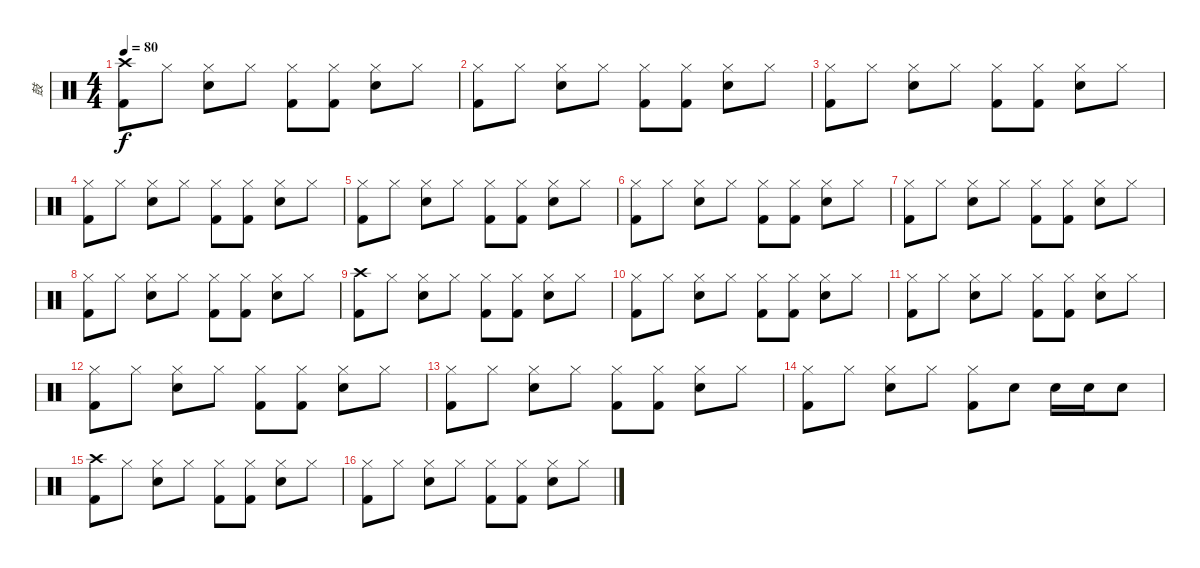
\track ("鼓" "鼓") {instrument percussion}
\staff {score}
\articulation defaults
\ts (4 4)
\tempo 80
\clef neutral
\ks c
("Crash high (hit)" "Kick (hit) 2").8{dy f} "Hi-Hat (closed)".8 ("Hi-Hat (closed)" "Electric Snare (hit)").8 "Hi-Hat (closed)".8 ("Hi-Hat (closed)" "Kick (hit) 2").8 ("Hi-Hat (closed)" "Kick (hit) 2").8 ("Hi-Hat (closed)" "Electric Snare (hit)").8 "Hi-Hat (closed)".8 |
("Hi-Hat (closed)" "Kick (hit) 2").8 "Hi-Hat (closed)".8 ("Hi-Hat (closed)" "Electric Snare (hit)").8 "Hi-Hat (closed)".8 ("Hi-Hat (closed)" "Kick (hit) 2").8 ("Hi-Hat (closed)" "Kick (hit) 2").8 ("Hi-Hat (closed)" "Electric Snare (hit)").8 "Hi-Hat (closed)".8 |
("Hi-Hat (closed)" "Kick (hit) 2").8 "Hi-Hat (closed)".8 ("Hi-Hat (closed)" "Electric Snare (hit)").8 "Hi-Hat (closed)".8 ("Hi-Hat (closed)" "Kick (hit) 2").8 ("Hi-Hat (closed)" "Kick (hit) 2").8 ("Hi-Hat (closed)" "Electric Snare (hit)").8 "Hi-Hat (closed)".8 |
("Hi-Hat (closed)" "Kick (hit) 2").8 "Hi-Hat (closed)".8 ("Hi-Hat (closed)" "Electric Snare (hit)").8 "Hi-Hat (closed)".8 ("Hi-Hat (closed)" "Kick (hit) 2").8 ("Hi-Hat (closed)" "Kick (hit) 2").8 ("Hi-Hat (closed)" "Electric Snare (hit)").8 "Hi-Hat (closed)".8 |
("Hi-Hat (closed)" "Kick (hit) 2").8 "Hi-Hat (closed)".8 ("Hi-Hat (closed)" "Electric Snare (hit)").8 "Hi-Hat (closed)".8 ("Hi-Hat (closed)" "Kick (hit) 2").8 ("Hi-Hat (closed)" "Kick (hit) 2").8 ("Hi-Hat (closed)" "Electric Snare (hit)").8 "Hi-Hat (closed)".8 |
("Hi-Hat (closed)" "Kick (hit) 2").8 "Hi-Hat (closed)".8 ("Hi-Hat (closed)" "Electric Snare (hit)").8 "Hi-Hat (closed)".8 ("Hi-Hat (closed)" "Kick (hit) 2").8 ("Hi-Hat (closed)" "Kick (hit) 2").8 ("Hi-Hat (closed)" "Electric Snare (hit)").8 "Hi-Hat (closed)".8 |
("Hi-Hat (closed)" "Kick (hit) 2").8 "Hi-Hat (closed)".8 ("Hi-Hat (closed)" "Electric Snare (hit)").8 "Hi-Hat (closed)".8 ("Hi-Hat (closed)" "Kick (hit) 2").8 ("Hi-Hat (closed)" "Kick (hit) 2").8 ("Hi-Hat (closed)" "Electric Snare (hit)").8 "Hi-Hat (closed)".8 |
("Hi-Hat (closed)" "Kick (hit) 2").8 "Hi-Hat (closed)".8 ("Hi-Hat (closed)" "Electric Snare (hit)").8 "Hi-Hat (closed)".8 ("Hi-Hat (closed)" "Kick (hit) 2").8 ("Hi-Hat (closed)" "Kick (hit) 2").8 ("Hi-Hat (closed)" "Electric Snare (hit)").8 "Hi-Hat (closed)".8 |
("Crash high (hit)" "Kick (hit) 2").8 "Hi-Hat (closed)".8 ("Hi-Hat (closed)" "Electric Snare (hit)").8 "Hi-Hat (closed)".8 ("Hi-Hat (closed)" "Kick (hit) 2").8 ("Hi-Hat (closed)" "Kick (hit) 2").8 ("Hi-Hat (closed)" "Electric Snare (hit)").8 "Hi-Hat (closed)".8 |
("Hi-Hat (closed)" "Kick (hit) 2").8 "Hi-Hat (closed)".8 ("Hi-Hat (closed)" "Electric Snare (hit)").8 "Hi-Hat (closed)".8 ("Hi-Hat (closed)" "Kick (hit) 2").8 ("Hi-Hat (closed)" "Kick (hit) 2").8 ("Hi-Hat (closed)" "Electric Snare (hit)").8 "Hi-Hat (closed)".8 |
("Hi-Hat (closed)" "Kick (hit) 2").8 "Hi-Hat (closed)".8 ("Hi-Hat (closed)" "Electric Snare (hit)").8 "Hi-Hat (closed)".8 ("Hi-Hat (closed)" "Kick (hit) 2").8 ("Hi-Hat (closed)" "Kick (hit) 2").8 ("Hi-Hat (closed)" "Electric Snare (hit)").8 "Hi-Hat (closed)".8 |
("Hi-Hat (closed)" "Kick (hit) 2").8 "Hi-Hat (closed)".8 ("Hi-Hat (closed)" "Electric Snare (hit)").8 "Hi-Hat (closed)".8 ("Hi-Hat (closed)" "Kick (hit) 2").8 ("Hi-Hat (closed)" "Kick (hit) 2").8 ("Hi-Hat (closed)" "Electric Snare (hit)").8 "Hi-Hat (closed)".8 |
("Hi-Hat (closed)" "Kick (hit) 2").8 "Hi-Hat (closed)".8 ("Hi-Hat (closed)" "Electric Snare (hit)").8 "Hi-Hat (closed)".8 ("Hi-Hat (closed)" "Kick (hit) 2").8 ("Hi-Hat (closed)" "Kick (hit) 2").8 ("Hi-Hat (closed)" "Electric Snare (hit)").8 "Hi-Hat (closed)".8 |
("Hi-Hat (closed)" "Kick (hit) 2").8 "Hi-Hat (closed)".8 ("Hi-Hat (closed)" "Electric Snare (hit)").8 "Hi-Hat (closed)".8 ("Hi-Hat (closed)" "Kick (hit) 2").8 "Electric Snare (hit)".8 "Electric Snare (hit)".16 "Electric Snare (hit)".16 "Electric Snare (hit)".8 |
("Crash high (hit)" "Kick (hit) 2").8 "Hi-Hat (closed)".8 ("Hi-Hat (closed)" "Electric Snare (hit)").8 "Hi-Hat (closed)".8 ("Hi-Hat (closed)" "Kick (hit) 2").8 ("Hi-Hat (closed)" "Kick (hit) 2").8 ("Hi-Hat (closed)" "Electric Snare (hit)").8 "Hi-Hat (closed)".8 |
("Hi-Hat (closed)" "Kick (hit) 2").8 "Hi-Hat (closed)".8 ("Hi-Hat (closed)" "Electric Snare (hit)").8 "Hi-Hat (closed)".8 ("Hi-Hat (closed)" "Kick (hit) 2").8 ("Hi-Hat (closed)" "Kick (hit) 2").8 ("Hi-Hat (closed)" "Electric Snare (hit)").8 "Hi-Hat (closed)".8
